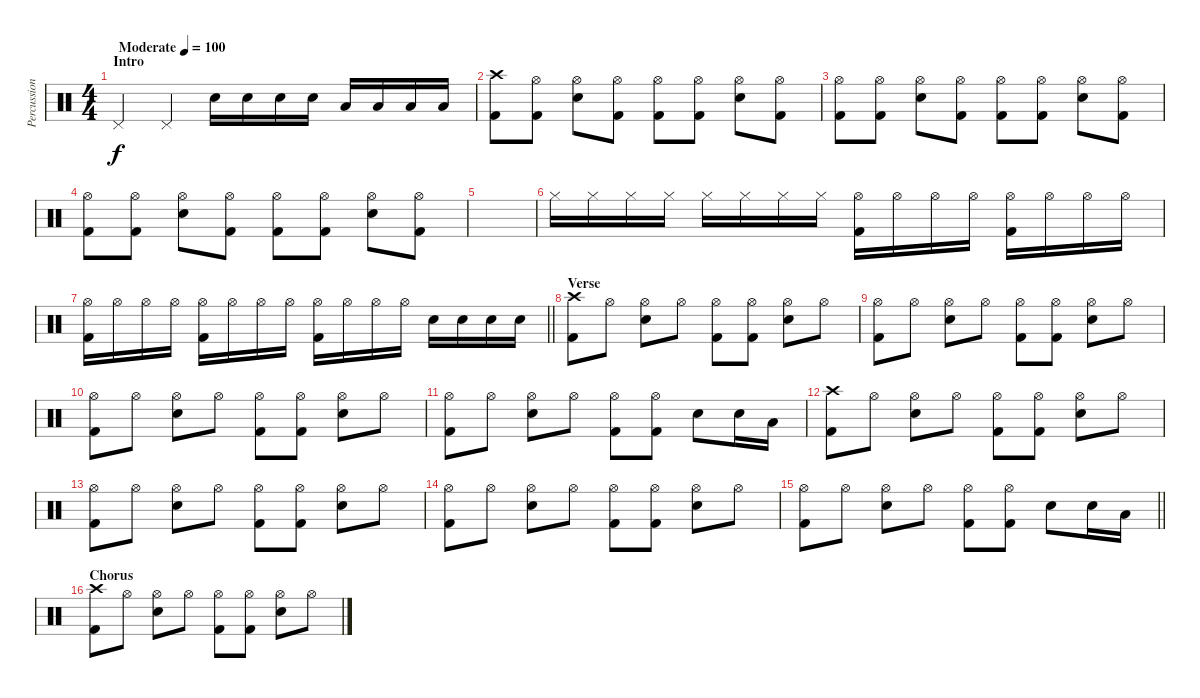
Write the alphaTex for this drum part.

\track ("Percussion" "Percussion") {instrument percussion}
\staff {score}
\articulation defaults
\ts (4 4)
\section ("" "Intro")
\tempo (100 "Moderate")
\clef neutral
\ks c "Pedal Hi-Hat (hit)".4{dy f} "Pedal Hi-Hat (hit)".4 "Electric Snare (hit)".16 "Electric Snare (hit)".16 "Electric Snare (hit)".16 "Electric Snare (hit)".16 "Low Tom (hit)".16 "Low Tom (hit)".16 "Low Tom (hit)".16 "Low Tom (hit)".16
|
("Crash high (hit)" "Kick (hit) 2").8 ("Hi-Hat (open)" "Kick (hit) 2").8 ("Hi-Hat (open)" "Electric Snare (hit)").8 ("Hi-Hat (open)" "Kick (hit) 2").8 ("Hi-Hat (open)" "Kick (hit) 2").8 ("Hi-Hat (open)" "Kick (hit) 2").8 ("Hi-Hat (open)" "Electric Snare (hit)").8 ("Hi-Hat (open)" "Kick (hit) 2").8 |
("Hi-Hat (open)" "Kick (hit) 2").8 ("Hi-Hat (open)" "Kick (hit) 2").8 ("Hi-Hat (open)" "Electric Snare (hit)").8 ("Hi-Hat (open)" "Kick (hit) 2").8 ("Hi-Hat (open)" "Kick (hit) 2").8 ("Hi-Hat (open)" "Kick (hit) 2").8 ("Hi-Hat (open)" "Electric Snare (hit)").8 ("Hi-Hat (open)" "Kick (hit) 2").8 |
("Hi-Hat (open)" "Kick (hit) 2").8 ("Hi-Hat (open)" "Kick (hit) 2").8 ("Hi-Hat (open)" "Electric Snare (hit)").8 ("Hi-Hat (open)" "Kick (hit) 2").8 ("Hi-Hat (open)" "Kick (hit) 2").8 ("Hi-Hat (open)" "Kick (hit) 2").8 ("Hi-Hat (open)" "Electric Snare (hit)").8 ("Hi-Hat (open)" "Kick (hit) 2").8 |
|
"Hi-Hat (closed)".16 "Hi-Hat (closed)".16 "Hi-Hat (closed)".16 "Hi-Hat (closed)".16 "Hi-Hat (closed)".16 "Hi-Hat (closed)".16 "Hi-Hat (closed)".16 "Hi-Hat (closed)".16 ("Hi-Hat (open)" "Kick (hit) 2").16 "Hi-Hat (open)".16 "Hi-Hat (open)".16 "Hi-Hat (open)".16 ("Hi-Hat (open)" "Kick (hit) 2").16 "Hi-Hat (open)".16 "Hi-Hat (open)".16 "Hi-Hat (open)".16 |
\barLineRight lightlight
("Hi-Hat (open)" "Kick (hit) 2").16 "Hi-Hat (open)".16 "Hi-Hat (open)".16 "Hi-Hat (open)".16 ("Hi-Hat (open)" "Kick (hit) 2").16 "Hi-Hat (open)".16 "Hi-Hat (open)".16 "Hi-Hat (open)".16 ("Hi-Hat (open)" "Kick (hit) 2").16 "Hi-Hat (open)".16 "Hi-Hat (open)".16 "Hi-Hat (open)".16 "Electric Snare (hit)".16 "Electric Snare (hit)".16 "Electric Snare (hit)".16 "Electric Snare (hit)".16 |
\section ("" "Verse")
("Crash high (hit)" "Kick (hit) 2").8 "Hi-Hat (open)".8 ("Hi-Hat (open)" "Electric Snare (hit)").8 "Hi-Hat (open)".8 ("Hi-Hat (open)" "Kick (hit) 2").8 ("Hi-Hat (open)" "Kick (hit) 2").8 ("Hi-Hat (open)" "Electric Snare (hit)").8 "Hi-Hat (open)".8 |
("Hi-Hat (open)" "Kick (hit) 2").8 "Hi-Hat (open)".8 ("Hi-Hat (open)" "Electric Snare (hit)").8 "Hi-Hat (open)".8 ("Hi-Hat (open)" "Kick (hit) 2").8 ("Hi-Hat (open)" "Kick (hit) 2").8 ("Hi-Hat (open)" "Electric Snare (hit)").8 "Hi-Hat (open)".8 |
("Hi-Hat (open)" "Kick (hit) 2").8 "Hi-Hat (open)".8 ("Hi-Hat (open)" "Electric Snare (hit)").8 "Hi-Hat (open)".8 ("Hi-Hat (open)" "Kick (hit) 2").8 ("Hi-Hat (open)" "Kick (hit) 2").8 ("Hi-Hat (open)" "Electric Snare (hit)").8 "Hi-Hat (open)".8 |
("Hi-Hat (open)" "Kick (hit) 2").8 "Hi-Hat (open)".8 ("Hi-Hat (open)" "Electric Snare (hit)").8 "Hi-Hat (open)".8 ("Hi-Hat (open)" "Kick (hit) 2").8 ("Hi-Hat (open)" "Kick (hit) 2").8 "Electric Snare (hit)".8 "Electric Snare (hit)".16 "Low Tom (hit)".16 |
("Crash high (hit)" "Kick (hit) 2").8 "Hi-Hat (open)".8 ("Hi-Hat (open)" "Electric Snare (hit)").8 "Hi-Hat (open)".8 ("Hi-Hat (open)" "Kick (hit) 2").8 ("Hi-Hat (open)" "Kick (hit) 2").8 ("Hi-Hat (open)" "Electric Snare (hit)").8 "Hi-Hat (open)".8 |
("Hi-Hat (open)" "Kick (hit) 2").8 "Hi-Hat (open)".8 ("Hi-Hat (open)" "Electric Snare (hit)").8 "Hi-Hat (open)".8 ("Hi-Hat (open)" "Kick (hit) 2").8 ("Hi-Hat (open)" "Kick (hit) 2").8 ("Hi-Hat (open)" "Electric Snare (hit)").8 "Hi-Hat (open)".8 |
("Hi-Hat (open)" "Kick (hit) 2").8 "Hi-Hat (open)".8 ("Hi-Hat (open)" "Electric Snare (hit)").8 "Hi-Hat (open)".8 ("Hi-Hat (open)" "Kick (hit) 2").8 ("Hi-Hat (open)" "Kick (hit) 2").8 ("Hi-Hat (open)" "Electric Snare (hit)").8 "Hi-Hat (open)".8 |
\barLineRight lightlight
("Hi-Hat (open)" "Kick (hit) 2").8 "Hi-Hat (open)".8 ("Hi-Hat (open)" "Electric Snare (hit)").8 "Hi-Hat (open)".8 ("Hi-Hat (open)" "Kick (hit) 2").8 ("Hi-Hat (open)" "Kick (hit) 2").8 "Electric Snare (hit)".8 "Electric Snare (hit)".16 "Low Tom (hit)".16 |
\section ("" "Chorus")
("Crash high (hit)" "Kick (hit) 2").8 "Hi-Hat (open)".8 ("Hi-Hat (open)" "Electric Snare (hit)").8 "Hi-Hat (open)".8 ("Hi-Hat (open)" "Kick (hit) 2").8 ("Hi-Hat (open)" "Kick (hit) 2").8 ("Hi-Hat (open)" "Electric Snare (hit)").8 "Hi-Hat (open)".8
